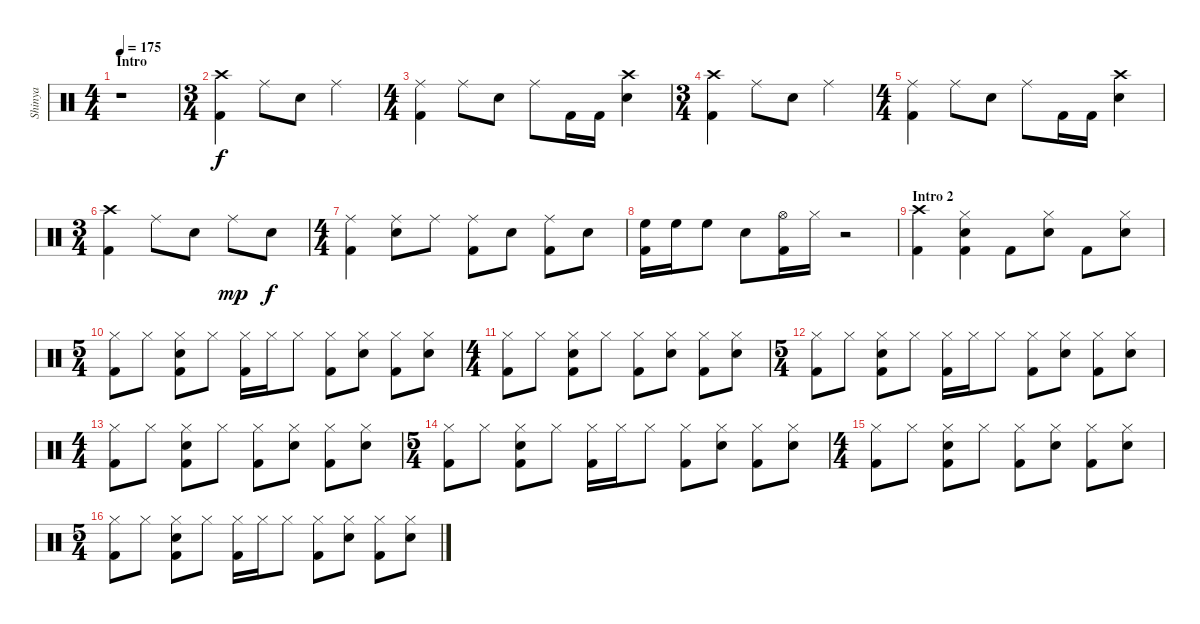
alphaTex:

\track ("Shinya" "Shinya") {instrument percussion}
\staff {score}
\articulation defaults
\ts (4 4)
\section ("" "Intro")
\tempo 175
\clef neutral
\ks c
r.1{dy f} |
\ts (3 4)
("Crash high (hit)" "Kick (hit) 2").4 "Ride (middle)".8 "Snare (hit) 2".8 "Ride (middle)".4 |
\ts (4 4)
("Ride (middle)" "Kick (hit) 2").4 "Ride (middle)".8 "Snare (hit) 2".8 "Ride (middle)".8 "Kick (hit) 2".16 "Kick (hit) 2".16 ("Crash high (hit)" "Snare (hit) 2").4 |
\ts (3 4)
("Crash high (hit)" "Kick (hit) 2").4 "Ride (middle)".8 "Snare (hit) 2".8 "Ride (middle)".4 |
\ts (4 4)
("Ride (middle)" "Kick (hit) 2").4 "Ride (middle)".8 "Snare (hit) 2".8 "Ride (middle)".8 "Kick (hit) 2".16 "Kick (hit) 2".16 ("Crash high (hit)" "Snare (hit) 2").4 |
\ts (3 4)
("Crash high (hit)" "Kick (hit) 2").4 "Ride (middle)".8 "Snare (hit) 2".8 "Ride (middle)".8{dy mp} "Snare (hit) 2".8{dy f} |
\ts (4 4)
("Ride (middle)" "Kick (hit) 2").4 ("Ride (middle)" "Snare (hit) 2").8 "Ride (middle)".8 ("Kick (hit) 2" "Ride (middle)").8 "Snare (hit) 2".8 ("Kick (hit) 2" "Ride (middle)").8 "Snare (hit) 2".8 |
("Kick (hit) 2" "High Floor Tom (hit)").16 "High Floor Tom (hit)".16 "High Floor Tom (hit)".8 "Snare (hit) 2".8 ("Kick (hit) 2" "Hi-Hat (open)").16 "Hi-Hat (closed)".16 r.2 |
\section ("" "Intro 2")
("Crash high (hit)" "Kick (hit) 2").4 ("Hi-Hat (closed)" "Snare (hit) 2" "Kick (hit) 2").4 "Kick (hit) 2".8 ("Hi-Hat (closed)" "Snare (hit) 2").8 "Kick (hit) 2".8 ("Hi-Hat (closed)" "Snare (hit) 2").8 |
\ts (5 4)
("Hi-Hat (closed)" "Kick (hit) 2").8 "Hi-Hat (closed)".8 ("Hi-Hat (closed)" "Snare (hit) 2" "Kick (hit) 2").8 "Hi-Hat (closed)".8 ("Hi-Hat (closed)" "Kick (hit) 2").16 "Hi-Hat (closed)".16 "Hi-Hat (closed)".8 ("Hi-Hat (closed)" "Kick (hit) 2").8 ("Hi-Hat (closed)" "Snare (hit) 2").8 ("Hi-Hat (closed)" "Kick (hit) 2").8 ("Hi-Hat (closed)" "Snare (hit) 2").8 |
\ts (4 4)
("Kick (hit) 2" "Hi-Hat (closed)").8 "Hi-Hat (closed)".8 ("Kick (hit) 2" "Hi-Hat (closed)" "Snare (hit) 2").8 "Hi-Hat (closed)".8 ("Kick (hit) 2" "Hi-Hat (closed)").8 ("Hi-Hat (closed)" "Snare (hit) 2").8 ("Kick (hit) 2" "Hi-Hat (closed)").8 ("Hi-Hat (closed)" "Snare (hit) 2").8 |
\ts (5 4)
("Hi-Hat (closed)" "Kick (hit) 2").8 "Hi-Hat (closed)".8 ("Hi-Hat (closed)" "Snare (hit) 2" "Kick (hit) 2").8 "Hi-Hat (closed)".8 ("Hi-Hat (closed)" "Kick (hit) 2").16 "Hi-Hat (closed)".16 "Hi-Hat (closed)".8 ("Hi-Hat (closed)" "Kick (hit) 2").8 ("Hi-Hat (closed)" "Snare (hit) 2").8 ("Hi-Hat (closed)" "Kick (hit) 2").8 ("Hi-Hat (closed)" "Snare (hit) 2").8 |
\ts (4 4)
("Kick (hit) 2" "Hi-Hat (closed)").8 "Hi-Hat (closed)".8 ("Kick (hit) 2" "Hi-Hat (closed)" "Snare (hit) 2").8 "Hi-Hat (closed)".8 ("Kick (hit) 2" "Hi-Hat (closed)").8 ("Hi-Hat (closed)" "Snare (hit) 2").8 ("Kick (hit) 2" "Hi-Hat (closed)").8 ("Hi-Hat (closed)" "Snare (hit) 2").8 |
\ts (5 4)
("Hi-Hat (closed)" "Kick (hit) 2").8 "Hi-Hat (closed)".8 ("Hi-Hat (closed)" "Snare (hit) 2" "Kick (hit) 2").8 "Hi-Hat (closed)".8 ("Hi-Hat (closed)" "Kick (hit) 2").16 "Hi-Hat (closed)".16 "Hi-Hat (closed)".8 ("Hi-Hat (closed)" "Kick (hit) 2").8 ("Hi-Hat (closed)" "Snare (hit) 2").8 ("Hi-Hat (closed)" "Kick (hit) 2").8 ("Hi-Hat (closed)" "Snare (hit) 2").8 |
\ts (4 4)
("Kick (hit) 2" "Hi-Hat (closed)").8 "Hi-Hat (closed)".8 ("Kick (hit) 2" "Hi-Hat (closed)" "Snare (hit) 2").8 "Hi-Hat (closed)".8 ("Kick (hit) 2" "Hi-Hat (closed)").8 ("Hi-Hat (closed)" "Snare (hit) 2").8 ("Kick (hit) 2" "Hi-Hat (closed)").8 ("Hi-Hat (closed)" "Snare (hit) 2").8 |
\ts (5 4)
("Hi-Hat (closed)" "Kick (hit) 2").8 "Hi-Hat (closed)".8 ("Hi-Hat (closed)" "Snare (hit) 2" "Kick (hit) 2").8 "Hi-Hat (closed)".8 ("Hi-Hat (closed)" "Kick (hit) 2").16 "Hi-Hat (closed)".16 "Hi-Hat (closed)".8 ("Hi-Hat (closed)" "Kick (hit) 2").8 ("Hi-Hat (closed)" "Snare (hit) 2").8 ("Hi-Hat (closed)" "Kick (hit) 2").8 ("Hi-Hat (closed)" "Snare (hit) 2").8
